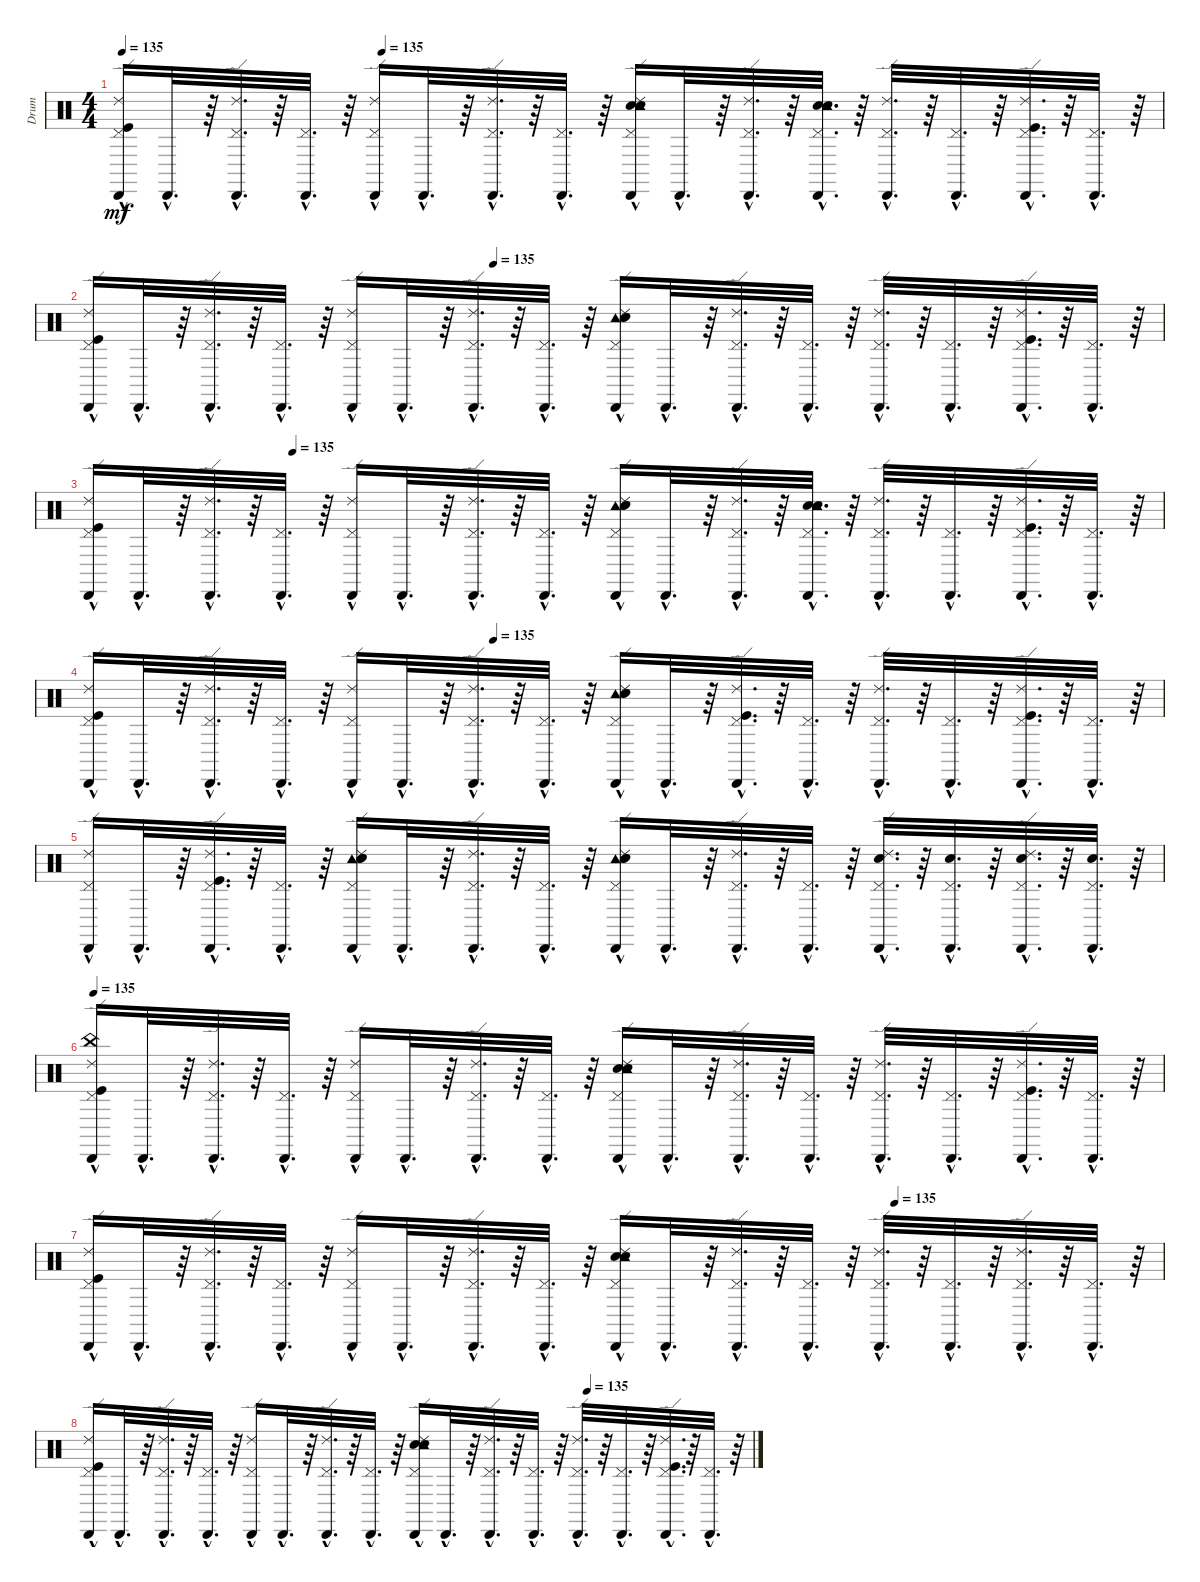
\track ("Drum" "Drum") {instrument percussion}
\staff {score}
\articulation defaults
\ts (4 4)
\tempo 135
\tempo (135 0.25)
\clef neutral
\ks c
("Cabasa (hit)"{hac} "Kick (hit)"{hac} "Ride (edge) 2"{hac} "Pedal Hi-Hat (hit)"{hac}).16{dy mf} "Cabasa (hit)"{hac}.32{d} r.64 ("Cabasa (hit)"{hac} "Pedal Hi-Hat (hit)"{hac} "Ride (edge) 2"{hac}).32{d} r.64 ("Cabasa (hit)"{hac} "Pedal Hi-Hat (hit)"{hac}).32{d} r.64 ("Cabasa (hit)"{hac} "Pedal Hi-Hat (hit)"{hac} "Ride (edge) 2"{hac}).16 "Cabasa (hit)"{hac}.32{d} r.64 ("Cabasa (hit)"{hac} "Pedal Hi-Hat (hit)"{hac} "Ride (edge) 2"{hac}).32{d} r.64 ("Cabasa (hit)"{hac} "Pedal Hi-Hat (hit)"{hac}).32{d} r.64 ("Cabasa (hit)"{hac} "Pedal Hi-Hat (hit)"{hac} "Electric Snare (hit)"{hac} "Snare (hit) 2"{hac} "Ride (edge) 2"{hac} "Tambourine (hit)"{hac}).16 "Cabasa (hit)"{hac}.32{d} r.64 ("Cabasa (hit)"{hac} "Pedal Hi-Hat (hit)"{hac} "Ride (edge) 2"{hac}).32{d} r.64 ("Cabasa (hit)"{hac} "Electric Snare (hit)"{hac} "Tambourine (hit)"{hac} "Snare (hit) 2"{hac} "Pedal Hi-Hat (hit)"{hac}).32{d} r.64 ("Cabasa (hit)"{hac} "Pedal Hi-Hat (hit)"{hac} "Ride (edge) 2"{hac}).32{d} r.64 ("Cabasa (hit)"{hac} "Pedal Hi-Hat (hit)"{hac}).32{d} r.64 ("Cabasa (hit)"{hac} "Kick (hit)"{hac} "Pedal Hi-Hat (hit)"{hac} "Ride (edge) 2"{hac}).32{d} r.64 ("Cabasa (hit)"{hac} "Pedal Hi-Hat (hit)"{hac}).32{d} r.64 |
\tempo (135 0.375)
("Cabasa (hit)"{hac} "Ride (edge) 2"{hac} "Kick (hit)"{hac} "Pedal Hi-Hat (hit)"{hac}).16 "Cabasa (hit)"{hac}.32{d} r.64 ("Cabasa (hit)"{hac} "Ride (edge) 2"{hac} "Pedal Hi-Hat (hit)"{hac}).32{d} r.64 ("Cabasa (hit)"{hac} "Pedal Hi-Hat (hit)"{hac}).32{d} r.64 ("Cabasa (hit)"{hac} "Ride (edge) 2"{hac} "Pedal Hi-Hat (hit)"{hac}).16 "Cabasa (hit)"{hac}.32{d} r.64 ("Cabasa (hit)"{hac} "Ride (edge) 2"{hac} "Pedal Hi-Hat (hit)"{hac}).32{d} r.64 ("Cabasa (hit)"{hac} "Pedal Hi-Hat (hit)"{hac}).32{d} r.64 ("Cabasa (hit)"{hac} "Tambourine (hit)"{hac} "Ride (edge) 2"{hac} "Pedal Hi-Hat (hit)"{hac} "Electric Snare (hit)"{hac} "Snare (hit) 2"{hac}).16 "Cabasa (hit)"{hac}.32{d} r.64 ("Cabasa (hit)"{hac} "Ride (edge) 2"{hac} "Pedal Hi-Hat (hit)"{hac}).32{d} r.64 ("Cabasa (hit)"{hac} "Pedal Hi-Hat (hit)"{hac}).32{d} r.64 ("Cabasa (hit)"{hac} "Ride (edge) 2"{hac} "Pedal Hi-Hat (hit)"{hac}).32{d} r.64 ("Cabasa (hit)"{hac} "Pedal Hi-Hat (hit)"{hac}).32{d} r.64 ("Cabasa (hit)"{hac} "Ride (edge) 2"{hac} "Kick (hit)"{hac} "Pedal Hi-Hat (hit)"{hac}).32{d} r.64 ("Cabasa (hit)"{hac} "Pedal Hi-Hat (hit)"{hac}).32{d} r.64 |
\tempo (135 0.1875)
("Cabasa (hit)"{hac} "Ride (edge) 2"{hac} "Pedal Hi-Hat (hit)"{hac} "Kick (hit)"{hac}).16 "Cabasa (hit)"{hac}.32{d} r.64 ("Cabasa (hit)"{hac} "Pedal Hi-Hat (hit)"{hac} "Ride (edge) 2"{hac}).32{d} r.64 ("Cabasa (hit)"{hac} "Pedal Hi-Hat (hit)"{hac}).32{d} r.64 ("Cabasa (hit)"{hac} "Pedal Hi-Hat (hit)"{hac} "Ride (edge) 2"{hac}).16 "Cabasa (hit)"{hac}.32{d} r.64 ("Cabasa (hit)"{hac} "Pedal Hi-Hat (hit)"{hac} "Ride (edge) 2"{hac}).32{d} r.64 ("Cabasa (hit)"{hac} "Pedal Hi-Hat (hit)"{hac}).32{d} r.64 ("Cabasa (hit)"{hac} "Tambourine (hit)"{hac} "Electric Snare (hit)"{hac} "Pedal Hi-Hat (hit)"{hac} "Snare (hit) 2"{hac} "Ride (edge) 2"{hac}).16 "Cabasa (hit)"{hac}.32{d} r.64 ("Cabasa (hit)"{hac} "Pedal Hi-Hat (hit)"{hac} "Ride (edge) 2"{hac}).32{d} r.64 ("Cabasa (hit)"{hac} "Snare (hit) 2"{hac} "Tambourine (hit)"{hac} "Pedal Hi-Hat (hit)"{hac} "Electric Snare (hit)"{hac}).32{d} r.64 ("Cabasa (hit)"{hac} "Pedal Hi-Hat (hit)"{hac} "Ride (edge) 2"{hac}).32{d} r.64 ("Cabasa (hit)"{hac} "Pedal Hi-Hat (hit)"{hac}).32{d} r.64 ("Cabasa (hit)"{hac} "Pedal Hi-Hat (hit)"{hac} "Kick (hit)"{hac} "Ride (edge) 2"{hac}).32{d} r.64 ("Cabasa (hit)"{hac} "Pedal Hi-Hat (hit)"{hac}).32{d} r.64 |
\tempo (135 0.375)
("Cabasa (hit)"{hac} "Ride (edge) 2"{hac} "Kick (hit)"{hac} "Pedal Hi-Hat (hit)"{hac}).16 "Cabasa (hit)"{hac}.32{d} r.64 ("Cabasa (hit)"{hac} "Ride (edge) 2"{hac} "Pedal Hi-Hat (hit)"{hac}).32{d} r.64 ("Cabasa (hit)"{hac} "Pedal Hi-Hat (hit)"{hac}).32{d} r.64 ("Cabasa (hit)"{hac} "Ride (edge) 2"{hac} "Pedal Hi-Hat (hit)"{hac}).16 "Cabasa (hit)"{hac}.32{d} r.64 ("Cabasa (hit)"{hac} "Ride (edge) 2"{hac} "Pedal Hi-Hat (hit)"{hac}).32{d} r.64 ("Cabasa (hit)"{hac} "Pedal Hi-Hat (hit)"{hac}).32{d} r.64 ("Cabasa (hit)"{hac} "Tambourine (hit)"{hac} "Ride (edge) 2"{hac} "Pedal Hi-Hat (hit)"{hac} "Electric Snare (hit)"{hac} "Snare (hit) 2"{hac}).16 "Cabasa (hit)"{hac}.32{d} r.64 ("Cabasa (hit)"{hac} "Kick (hit)"{hac} "Ride (edge) 2"{hac} "Pedal Hi-Hat (hit)"{hac}).32{d} r.64 ("Cabasa (hit)"{hac} "Pedal Hi-Hat (hit)"{hac}).32{d} r.64 ("Cabasa (hit)"{hac} "Ride (edge) 2"{hac} "Pedal Hi-Hat (hit)"{hac}).32{d} r.64 ("Cabasa (hit)"{hac} "Pedal Hi-Hat (hit)"{hac}).32{d} r.64 ("Cabasa (hit)"{hac} "Ride (edge) 2"{hac} "Kick (hit)"{hac} "Pedal Hi-Hat (hit)"{hac}).32{d} r.64 ("Cabasa (hit)"{hac} "Pedal Hi-Hat (hit)"{hac}).32{d} r.64 |
("Cabasa (hit)"{hac} "Pedal Hi-Hat (hit)"{hac} "Ride (edge) 2"{hac}).16 "Cabasa (hit)"{hac}.32{d} r.64 ("Cabasa (hit)"{hac} "Ride (edge) 2"{hac} "Pedal Hi-Hat (hit)"{hac} "Kick (hit)"{hac}).32{d} r.64 ("Cabasa (hit)"{hac} "Pedal Hi-Hat (hit)"{hac}).32{d} r.64 ("Cabasa (hit)"{hac} "Ride (edge) 2"{hac} "Pedal Hi-Hat (hit)"{hac} "Tambourine (hit)"{hac} "Snare (hit) 2"{hac} "Electric Snare (hit)"{hac}).16 "Cabasa (hit)"{hac}.32{d} r.64 ("Cabasa (hit)"{hac} "Ride (edge) 2"{hac} "Pedal Hi-Hat (hit)"{hac}).32{d} r.64 ("Cabasa (hit)"{hac} "Pedal Hi-Hat (hit)"{hac}).32{d} r.64 ("Cabasa (hit)"{hac} "Tambourine (hit)"{hac} "Pedal Hi-Hat (hit)"{hac} "Ride (edge) 2"{hac} "Snare (hit) 2"{hac} "Electric Snare (hit)"{hac}).16 "Cabasa (hit)"{hac}.32{d} r.64 ("Cabasa (hit)"{hac} "Ride (edge) 2"{hac} "Pedal Hi-Hat (hit)"{hac}).32{d} r.64 ("Cabasa (hit)"{hac} "Pedal Hi-Hat (hit)"{hac}).32{d} r.64 ("Cabasa (hit)"{hac} "Ride (edge) 2"{hac} "Pedal Hi-Hat (hit)"{hac} "Snare (hit) 2"{hac}).32{d} r.64 ("Cabasa (hit)"{hac} "Pedal Hi-Hat (hit)"{hac} "Snare (hit) 2"{hac}).32{d} r.64 ("Cabasa (hit)"{hac} "Ride (edge) 2"{hac} "Pedal Hi-Hat (hit)"{hac} "Snare (hit) 2"{hac}).32{d} r.64 ("Cabasa (hit)"{hac} "Pedal Hi-Hat (hit)"{hac} "Snare (hit) 2"{hac}).32{d} r.64 |
\tempo 135
("Cabasa (hit)"{hac} "China (hit)"{hac} "Pedal Hi-Hat (hit)"{hac} "Kick (hit)"{hac} "Ride (edge) 2"{hac}).16 "Cabasa (hit)"{hac}.32{d} r.64 ("Cabasa (hit)"{hac} "Pedal Hi-Hat (hit)"{hac} "Ride (edge) 2"{hac}).32{d} r.64 ("Cabasa (hit)"{hac} "Pedal Hi-Hat (hit)"{hac}).32{d} r.64 ("Cabasa (hit)"{hac} "Pedal Hi-Hat (hit)"{hac} "Ride (edge) 2"{hac}).16 "Cabasa (hit)"{hac}.32{d} r.64 ("Cabasa (hit)"{hac} "Pedal Hi-Hat (hit)"{hac} "Ride (edge) 2"{hac}).32{d} r.64 ("Cabasa (hit)"{hac} "Pedal Hi-Hat (hit)"{hac}).32{d} r.64 ("Cabasa (hit)"{hac} "Snare (hit) 2"{hac} "Electric Snare (hit)"{hac} "Pedal Hi-Hat (hit)"{hac} "Ride (edge) 2"{hac} "Tambourine (hit)"{hac}).16 "Cabasa (hit)"{hac}.32{d} r.64 ("Cabasa (hit)"{hac} "Pedal Hi-Hat (hit)"{hac} "Ride (edge) 2"{hac}).32{d} r.64 ("Cabasa (hit)"{hac} "Pedal Hi-Hat (hit)"{hac}).32{d} r.64 ("Cabasa (hit)"{hac} "Pedal Hi-Hat (hit)"{hac} "Ride (edge) 2"{hac}).32{d} r.64 ("Cabasa (hit)"{hac} "Pedal Hi-Hat (hit)"{hac}).32{d} r.64 ("Cabasa (hit)"{hac} "Pedal Hi-Hat (hit)"{hac} "Kick (hit)"{hac} "Ride (edge) 2"{hac}).32{d} r.64 ("Cabasa (hit)"{hac} "Pedal Hi-Hat (hit)"{hac}).32{d} r.64 |
\tempo (135 0.75)
("Cabasa (hit)"{hac} "Pedal Hi-Hat (hit)"{hac} "Kick (hit)"{hac} "Ride (edge) 2"{hac}).16 "Cabasa (hit)"{hac}.32{d} r.64 ("Cabasa (hit)"{hac} "Pedal Hi-Hat (hit)"{hac} "Ride (edge) 2"{hac}).32{d} r.64 ("Cabasa (hit)"{hac} "Pedal Hi-Hat (hit)"{hac}).32{d} r.64 ("Cabasa (hit)"{hac} "Pedal Hi-Hat (hit)"{hac} "Ride (edge) 2"{hac}).16 "Cabasa (hit)"{hac}.32{d} r.64 ("Cabasa (hit)"{hac} "Pedal Hi-Hat (hit)"{hac} "Ride (edge) 2"{hac}).32{d} r.64 ("Cabasa (hit)"{hac} "Pedal Hi-Hat (hit)"{hac}).32{d} r.64 ("Cabasa (hit)"{hac} "Pedal Hi-Hat (hit)"{hac} "Snare (hit) 2"{hac} "Ride (edge) 2"{hac} "Tambourine (hit)"{hac} "Electric Snare (hit)"{hac}).16 "Cabasa (hit)"{hac}.32{d} r.64 ("Cabasa (hit)"{hac} "Pedal Hi-Hat (hit)"{hac} "Ride (edge) 2"{hac}).32{d} r.64 ("Cabasa (hit)"{hac} "Pedal Hi-Hat (hit)"{hac}).32{d} r.64 ("Cabasa (hit)"{hac} "Ride (edge) 2"{hac} "Pedal Hi-Hat (hit)"{hac}).32{d} r.64 ("Cabasa (hit)"{hac} "Pedal Hi-Hat (hit)"{hac}).32{d} r.64 ("Cabasa (hit)"{hac} "Pedal Hi-Hat (hit)"{hac} "Ride (edge) 2"{hac}).32{d} r.64 ("Cabasa (hit)"{hac} "Pedal Hi-Hat (hit)"{hac}).32{d} r.64 |
\tempo (135 0.75)
("Cabasa (hit)"{hac} "Pedal Hi-Hat (hit)"{hac} "Kick (hit)"{hac} "Ride (edge) 2"{hac}).16 "Cabasa (hit)"{hac}.32{d} r.64 ("Cabasa (hit)"{hac} "Pedal Hi-Hat (hit)"{hac} "Ride (edge) 2"{hac}).32{d} r.64 ("Cabasa (hit)"{hac} "Pedal Hi-Hat (hit)"{hac}).32{d} r.64 ("Cabasa (hit)"{hac} "Pedal Hi-Hat (hit)"{hac} "Ride (edge) 2"{hac}).16 "Cabasa (hit)"{hac}.32{d} r.64 ("Cabasa (hit)"{hac} "Pedal Hi-Hat (hit)"{hac} "Ride (edge) 2"{hac}).32{d} r.64 ("Cabasa (hit)"{hac} "Pedal Hi-Hat (hit)"{hac}).32{d} r.64 ("Cabasa (hit)"{hac} "Snare (hit) 2"{hac} "Electric Snare (hit)"{hac} "Pedal Hi-Hat (hit)"{hac} "Ride (edge) 2"{hac} "Tambourine (hit)"{hac}).16 "Cabasa (hit)"{hac}.32{d} r.64 ("Cabasa (hit)"{hac} "Pedal Hi-Hat (hit)"{hac} "Ride (edge) 2"{hac}).32{d} r.64 ("Cabasa (hit)"{hac} "Pedal Hi-Hat (hit)"{hac}).32{d} r.64 ("Cabasa (hit)"{hac} "Pedal Hi-Hat (hit)"{hac} "Ride (edge) 2"{hac}).32{d} r.64 ("Cabasa (hit)"{hac} "Pedal Hi-Hat (hit)"{hac}).32{d} r.64 ("Cabasa (hit)"{hac} "Pedal Hi-Hat (hit)"{hac} "Kick (hit)"{hac} "Ride (edge) 2"{hac}).32{d} r.64 ("Cabasa (hit)"{hac} "Pedal Hi-Hat (hit)"{hac}).32{d} r.64
